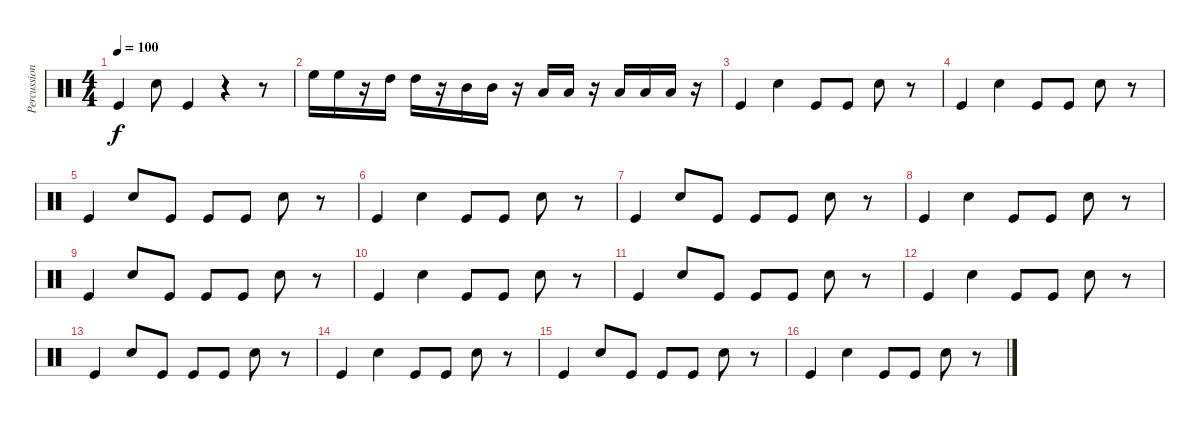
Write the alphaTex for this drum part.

\track ("Percussion" "Percussion") {instrument percussion}
\staff {score}
\articulation defaults
\ts (4 4)
\tempo 100
\clef neutral
\ks c "Kick (hit)".4{dy f} "Snare (hit) 2".8 "Kick (hit)".4
r.4 r.8 |
"High Floor Tom (hit)".16 "High Floor Tom (hit)".16 r.16 "High Tom (hit)".16 "High Tom (hit)".16 r.16 "Mid Tom (hit)".16 "Mid Tom (hit)".16 r.16 "Low Tom (hit)".16 "Low Tom (hit)".16 r.16 "Low Floor Tom (hit)".16 "Low Floor Tom (hit)".16 "Low Floor Tom (hit)".16 r.16 |
"Kick (hit)".4 "Snare (hit) 2".4 "Kick (hit)".8 "Kick (hit)".8 "Snare (hit) 2".8 r.8 |
"Kick (hit)".4 "Snare (hit) 2".4 "Kick (hit)".8 "Kick (hit)".8 "Snare (hit) 2".8 r.8 |
"Kick (hit)".4 "Snare (hit) 2".8 "Kick (hit)".8 "Kick (hit)".8 "Kick (hit)".8 "Snare (hit) 2".8 r.8 |
"Kick (hit)".4 "Snare (hit) 2".4 "Kick (hit)".8 "Kick (hit)".8 "Snare (hit) 2".8 r.8 |
"Kick (hit)".4 "Snare (hit) 2".8 "Kick (hit)".8 "Kick (hit)".8 "Kick (hit)".8 "Snare (hit) 2".8 r.8 |
"Kick (hit)".4 "Snare (hit) 2".4 "Kick (hit)".8 "Kick (hit)".8 "Snare (hit) 2".8 r.8 |
"Kick (hit)".4 "Snare (hit) 2".8 "Kick (hit)".8 "Kick (hit)".8 "Kick (hit)".8 "Snare (hit) 2".8 r.8 |
"Kick (hit)".4 "Snare (hit) 2".4 "Kick (hit)".8 "Kick (hit)".8 "Snare (hit) 2".8 r.8 |
"Kick (hit)".4 "Snare (hit) 2".8 "Kick (hit)".8 "Kick (hit)".8 "Kick (hit)".8 "Snare (hit) 2".8 r.8 |
"Kick (hit)".4 "Snare (hit) 2".4 "Kick (hit)".8 "Kick (hit)".8 "Snare (hit) 2".8 r.8 |
"Kick (hit)".4 "Snare (hit) 2".8 "Kick (hit)".8 "Kick (hit)".8 "Kick (hit)".8 "Snare (hit) 2".8 r.8 |
"Kick (hit)".4 "Snare (hit) 2".4 "Kick (hit)".8 "Kick (hit)".8 "Snare (hit) 2".8 r.8 |
"Kick (hit)".4 "Snare (hit) 2".8 "Kick (hit)".8 "Kick (hit)".8 "Kick (hit)".8 "Snare (hit) 2".8 r.8 |
"Kick (hit)".4 "Snare (hit) 2".4 "Kick (hit)".8 "Kick (hit)".8 "Snare (hit) 2".8 r.8
